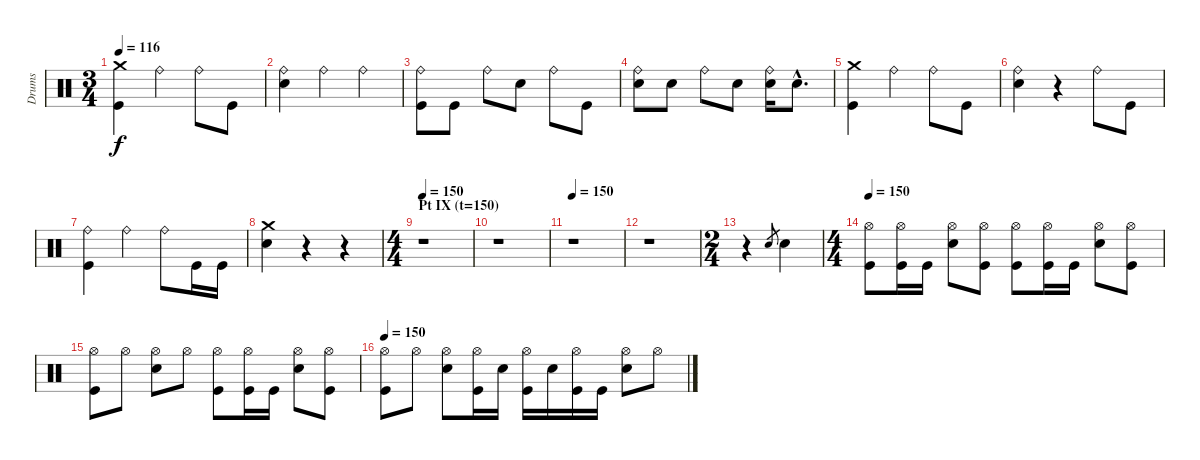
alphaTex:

\track ("Drums" "Drums") {instrument percussion}
\staff {score}
\articulation defaults
\ts (3 4)
\tempo 116
\clef neutral
\ks c
("Kick (hit)" "Crash medium (hit)").4{dy f} "Ride (bell)".4 "Ride (bell)".8 "Kick (hit)".8 |
("Electric Snare (hit)" "Ride (bell)").4 "Ride (bell)".4 "Ride (bell)".4 |
("Kick (hit)" "Ride (bell)").8 "Kick (hit)".8 "Ride (bell)".8 "Electric Snare (hit)".8 "Ride (bell)".8 "Kick (hit)".8 |
("Electric Snare (hit)" "Ride (bell)").8 "Electric Snare (hit)".8 "Ride (bell)".8 "Electric Snare (hit)".8 ("Electric Snare (hit)" "Ride (bell)").16 "Electric Snare (hit)"{hac}.8{d} |
("Kick (hit)" "Crash medium (hit)").4 "Ride (bell)".4 "Ride (bell)".8 "Kick (hit)".8 |
("Electric Snare (hit)" "Ride (bell)").4 r.4 "Ride (bell)".8 "Kick (hit)".8 |
("Kick (hit)" "Ride (bell)").4 "Ride (bell)".4 "Ride (bell)".8 "Kick (hit)".16 "Kick (hit)".16 |
("Electric Snare (hit)" "Crash medium (hit)").4 r.4 r.4 |
\ts (4 4)
\section ("" "Pt IX (t=150)")
\tempo 150
r.1 |
r.1 |
\tempo 150
r.1 |
r.1 |
\ts (2 4)
r.4 "Electric Snare (hit)".8{gr} "Electric Snare (hit)".4 |
\ts (4 4)
\tempo 150
("Kick (hit)" "Hi-Hat (open)").8 ("Kick (hit)" "Hi-Hat (open)").16 "Kick (hit)".16 ("Electric Snare (hit)" "Hi-Hat (open)").8 ("Kick (hit)" "Hi-Hat (open)").8 ("Kick (hit)" "Hi-Hat (open)").8 ("Kick (hit)" "Hi-Hat (open)").16 "Kick (hit)".16 ("Electric Snare (hit)" "Hi-Hat (open)").8 ("Kick (hit)" "Hi-Hat (open)").8 |
("Kick (hit)" "Hi-Hat (open)").8 "Hi-Hat (open)".8 ("Electric Snare (hit)" "Hi-Hat (open)").8 "Hi-Hat (open)".8 ("Kick (hit)" "Hi-Hat (open)").8 ("Kick (hit)" "Hi-Hat (open)").16 "Kick (hit)".16 ("Electric Snare (hit)" "Hi-Hat (open)").8 ("Kick (hit)" "Hi-Hat (open)").8 |
\tempo 150
("Kick (hit)" "Hi-Hat (open)").8 "Hi-Hat (open)".8 ("Electric Snare (hit)" "Hi-Hat (open)").8 ("Kick (hit)" "Hi-Hat (open)").16 "Electric Snare (hit)".16 ("Kick (hit)" "Hi-Hat (open)").16 "Electric Snare (hit)".16 ("Kick (hit)" "Hi-Hat (open)").16 "Kick (hit)".16 ("Electric Snare (hit)" "Hi-Hat (open)").8 "Hi-Hat (open)".8
